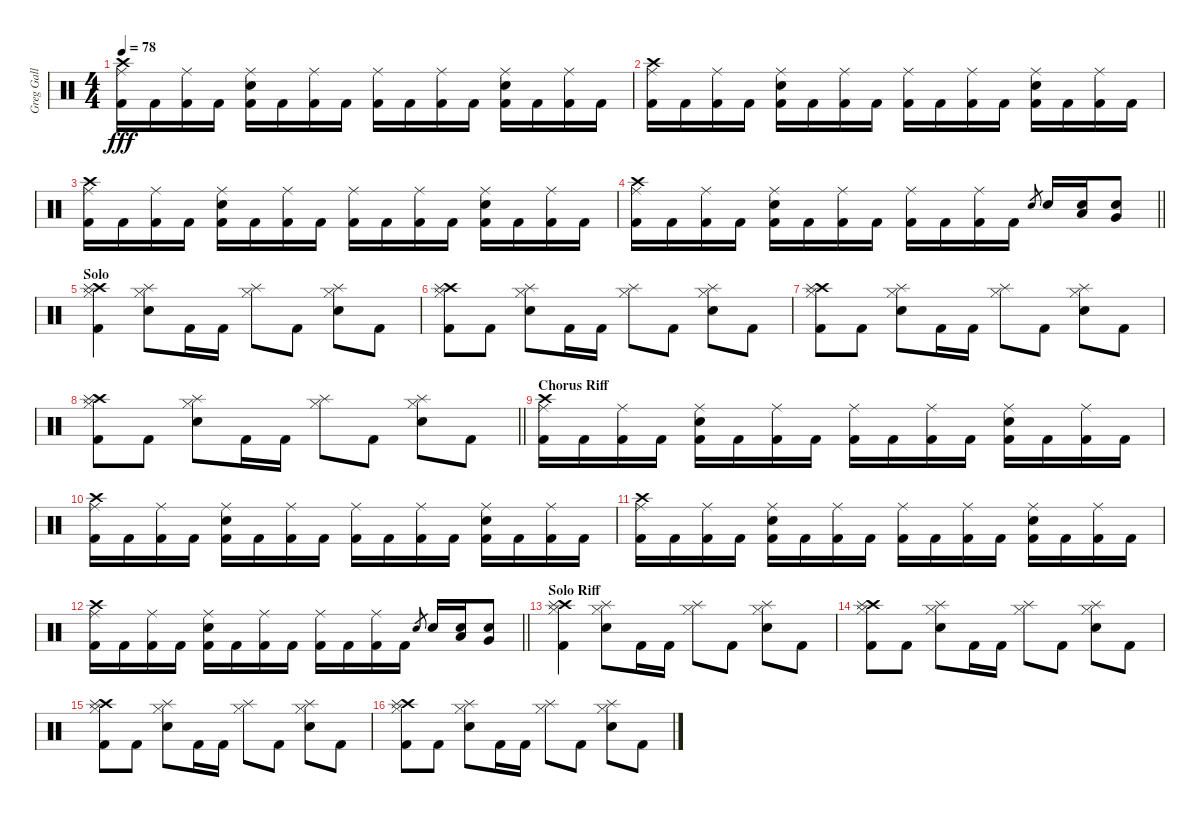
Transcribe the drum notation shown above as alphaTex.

\track ("Greg Gall" "Greg Gall") {instrument percussion}
\staff {score}
\articulation defaults
\ts (4 4)
\tempo 78
\clef neutral
\ks c
("Crash high (hit)" "Ride (middle)" "Kick (hit) 2").16{dy fff} "Kick (hit) 2".16 ("Ride (middle)" "Kick (hit) 2").16 "Kick (hit) 2".16 ("Ride (middle)" "Electric Snare (hit)" "Kick (hit) 2").16 "Kick (hit) 2".16 ("Ride (middle)" "Kick (hit) 2").16 "Kick (hit) 2".16 ("Ride (middle)" "Kick (hit) 2").16 "Kick (hit) 2".16 ("Ride (middle)" "Kick (hit) 2").16 "Kick (hit) 2".16 ("Ride (middle)" "Electric Snare (hit)" "Kick (hit) 2").16 "Kick (hit) 2".16 ("Ride (middle)" "Kick (hit) 2").16 "Kick (hit) 2".16 |
("Crash high (hit)" "Ride (middle)" "Kick (hit) 2").16 "Kick (hit) 2".16 ("Ride (middle)" "Kick (hit) 2").16 "Kick (hit) 2".16 ("Ride (middle)" "Electric Snare (hit)" "Kick (hit) 2").16 "Kick (hit) 2".16 ("Ride (middle)" "Kick (hit) 2").16 "Kick (hit) 2".16 ("Ride (middle)" "Kick (hit) 2").16 "Kick (hit) 2".16 ("Ride (middle)" "Kick (hit) 2").16 "Kick (hit) 2".16 ("Ride (middle)" "Electric Snare (hit)" "Kick (hit) 2").16 "Kick (hit) 2".16 ("Ride (middle)" "Kick (hit) 2").16 "Kick (hit) 2".16 |
("Crash high (hit)" "Ride (middle)" "Kick (hit) 2").16 "Kick (hit) 2".16 ("Ride (middle)" "Kick (hit) 2").16 "Kick (hit) 2".16 ("Ride (middle)" "Electric Snare (hit)" "Kick (hit) 2").16 "Kick (hit) 2".16 ("Ride (middle)" "Kick (hit) 2").16 "Kick (hit) 2".16 ("Ride (middle)" "Kick (hit) 2").16 "Kick (hit) 2".16 ("Ride (middle)" "Kick (hit) 2").16 "Kick (hit) 2".16 ("Ride (middle)" "Electric Snare (hit)" "Kick (hit) 2").16 "Kick (hit) 2".16 ("Ride (middle)" "Kick (hit) 2").16 "Kick (hit) 2".16 |
\barLineRight lightlight
("Crash high (hit)" "Ride (middle)" "Kick (hit) 2").16 "Kick (hit) 2".16 ("Ride (middle)" "Kick (hit) 2").16 "Kick (hit) 2".16 ("Ride (middle)" "Electric Snare (hit)" "Kick (hit) 2").16 "Kick (hit) 2".16 ("Ride (middle)" "Kick (hit) 2").16 "Kick (hit) 2".16 ("Ride (middle)" "Kick (hit) 2").16 "Kick (hit) 2".16 ("Ride (middle)" "Kick (hit) 2").16 "Kick (hit) 2".16 "Electric Snare (hit)".8{gr} "Electric Snare (hit)".16 ("Low Tom (hit)" "Electric Snare (hit)").16 ("Very Low Tom (hit)" "Electric Snare (hit)").8 |
\section ("" "Solo")
("Crash high (hit)" "Splash (hit)" "Hi-Hat (closed)" "Kick (hit) 2").4 ("Splash (hit)" "Hi-Hat (closed)" "Electric Snare (hit)").8 "Kick (hit) 2".16 "Kick (hit) 2".16 ("Splash (hit)" "Hi-Hat (closed)").8 "Kick (hit) 2".8 ("Splash (hit)" "Hi-Hat (closed)" "Electric Snare (hit)").8 "Kick (hit) 2".8 |
("Crash high (hit)" "Splash (hit)" "Hi-Hat (closed)" "Kick (hit) 2").8 "Kick (hit) 2".8 ("Splash (hit)" "Hi-Hat (closed)" "Electric Snare (hit)").8 "Kick (hit) 2".16 "Kick (hit) 2".16 ("Splash (hit)" "Hi-Hat (closed)").8 "Kick (hit) 2".8 ("Splash (hit)" "Hi-Hat (closed)" "Electric Snare (hit)").8 "Kick (hit) 2".8 |
("Crash high (hit)" "Splash (hit)" "Hi-Hat (closed)" "Kick (hit) 2").8 "Kick (hit) 2".8 ("Splash (hit)" "Hi-Hat (closed)" "Electric Snare (hit)").8 "Kick (hit) 2".16 "Kick (hit) 2".16 ("Splash (hit)" "Hi-Hat (closed)").8 "Kick (hit) 2".8 ("Splash (hit)" "Hi-Hat (closed)" "Electric Snare (hit)").8 "Kick (hit) 2".8 |
\barLineRight lightlight
("Crash high (hit)" "Splash (hit)" "Hi-Hat (closed)" "Kick (hit) 2").8 "Kick (hit) 2".8 ("Splash (hit)" "Hi-Hat (closed)" "Electric Snare (hit)").8 "Kick (hit) 2".16 "Kick (hit) 2".16 ("Splash (hit)" "Hi-Hat (closed)").8 "Kick (hit) 2".8 ("Splash (hit)" "Hi-Hat (closed)" "Electric Snare (hit)").8 "Kick (hit) 2".8 |
\section ("" "Chorus Riff")
("Crash high (hit)" "Ride (middle)" "Kick (hit) 2").16 "Kick (hit) 2".16 ("Ride (middle)" "Kick (hit) 2").16 "Kick (hit) 2".16 ("Ride (middle)" "Electric Snare (hit)" "Kick (hit) 2").16 "Kick (hit) 2".16 ("Ride (middle)" "Kick (hit) 2").16 "Kick (hit) 2".16 ("Ride (middle)" "Kick (hit) 2").16 "Kick (hit) 2".16 ("Ride (middle)" "Kick (hit) 2").16 "Kick (hit) 2".16 ("Ride (middle)" "Electric Snare (hit)" "Kick (hit) 2").16 "Kick (hit) 2".16 ("Ride (middle)" "Kick (hit) 2").16 "Kick (hit) 2".16 |
("Crash high (hit)" "Ride (middle)" "Kick (hit) 2").16 "Kick (hit) 2".16 ("Ride (middle)" "Kick (hit) 2").16 "Kick (hit) 2".16 ("Ride (middle)" "Electric Snare (hit)" "Kick (hit) 2").16 "Kick (hit) 2".16 ("Ride (middle)" "Kick (hit) 2").16 "Kick (hit) 2".16 ("Ride (middle)" "Kick (hit) 2").16 "Kick (hit) 2".16 ("Ride (middle)" "Kick (hit) 2").16 "Kick (hit) 2".16 ("Ride (middle)" "Electric Snare (hit)" "Kick (hit) 2").16 "Kick (hit) 2".16 ("Ride (middle)" "Kick (hit) 2").16 "Kick (hit) 2".16 |
("Crash high (hit)" "Ride (middle)" "Kick (hit) 2").16 "Kick (hit) 2".16 ("Ride (middle)" "Kick (hit) 2").16 "Kick (hit) 2".16 ("Ride (middle)" "Electric Snare (hit)" "Kick (hit) 2").16 "Kick (hit) 2".16 ("Ride (middle)" "Kick (hit) 2").16 "Kick (hit) 2".16 ("Ride (middle)" "Kick (hit) 2").16 "Kick (hit) 2".16 ("Ride (middle)" "Kick (hit) 2").16 "Kick (hit) 2".16 ("Ride (middle)" "Electric Snare (hit)" "Kick (hit) 2").16 "Kick (hit) 2".16 ("Ride (middle)" "Kick (hit) 2").16 "Kick (hit) 2".16 |
\barLineRight lightlight
("Crash high (hit)" "Ride (middle)" "Kick (hit) 2").16 "Kick (hit) 2".16 ("Ride (middle)" "Kick (hit) 2").16 "Kick (hit) 2".16 ("Ride (middle)" "Electric Snare (hit)" "Kick (hit) 2").16 "Kick (hit) 2".16 ("Ride (middle)" "Kick (hit) 2").16 "Kick (hit) 2".16 ("Ride (middle)" "Kick (hit) 2").16 "Kick (hit) 2".16 ("Ride (middle)" "Kick (hit) 2").16 "Kick (hit) 2".16 "Electric Snare (hit)".8{gr} "Electric Snare (hit)".16 ("Low Tom (hit)" "Electric Snare (hit)").16 ("Very Low Tom (hit)" "Electric Snare (hit)").8 |
\section ("" "Solo Riff")
("Crash high (hit)" "Splash (hit)" "Hi-Hat (closed)" "Kick (hit) 2").4 ("Splash (hit)" "Hi-Hat (closed)" "Electric Snare (hit)").8 "Kick (hit) 2".16 "Kick (hit) 2".16 ("Splash (hit)" "Hi-Hat (closed)").8 "Kick (hit) 2".8 ("Splash (hit)" "Hi-Hat (closed)" "Electric Snare (hit)").8 "Kick (hit) 2".8 |
("Crash high (hit)" "Splash (hit)" "Hi-Hat (closed)" "Kick (hit) 2").8 "Kick (hit) 2".8 ("Splash (hit)" "Hi-Hat (closed)" "Electric Snare (hit)").8 "Kick (hit) 2".16 "Kick (hit) 2".16 ("Splash (hit)" "Hi-Hat (closed)").8 "Kick (hit) 2".8 ("Splash (hit)" "Hi-Hat (closed)" "Electric Snare (hit)").8 "Kick (hit) 2".8 |
("Crash high (hit)" "Splash (hit)" "Hi-Hat (closed)" "Kick (hit) 2").8 "Kick (hit) 2".8 ("Splash (hit)" "Hi-Hat (closed)" "Electric Snare (hit)").8 "Kick (hit) 2".16 "Kick (hit) 2".16 ("Splash (hit)" "Hi-Hat (closed)").8 "Kick (hit) 2".8 ("Splash (hit)" "Hi-Hat (closed)" "Electric Snare (hit)").8 "Kick (hit) 2".8 |
("Crash high (hit)" "Splash (hit)" "Hi-Hat (closed)" "Kick (hit) 2").8 "Kick (hit) 2".8 ("Splash (hit)" "Hi-Hat (closed)" "Electric Snare (hit)").8 "Kick (hit) 2".16 "Kick (hit) 2".16 ("Splash (hit)" "Hi-Hat (closed)").8 "Kick (hit) 2".8 ("Splash (hit)" "Hi-Hat (closed)" "Electric Snare (hit)").8 "Kick (hit) 2".8
